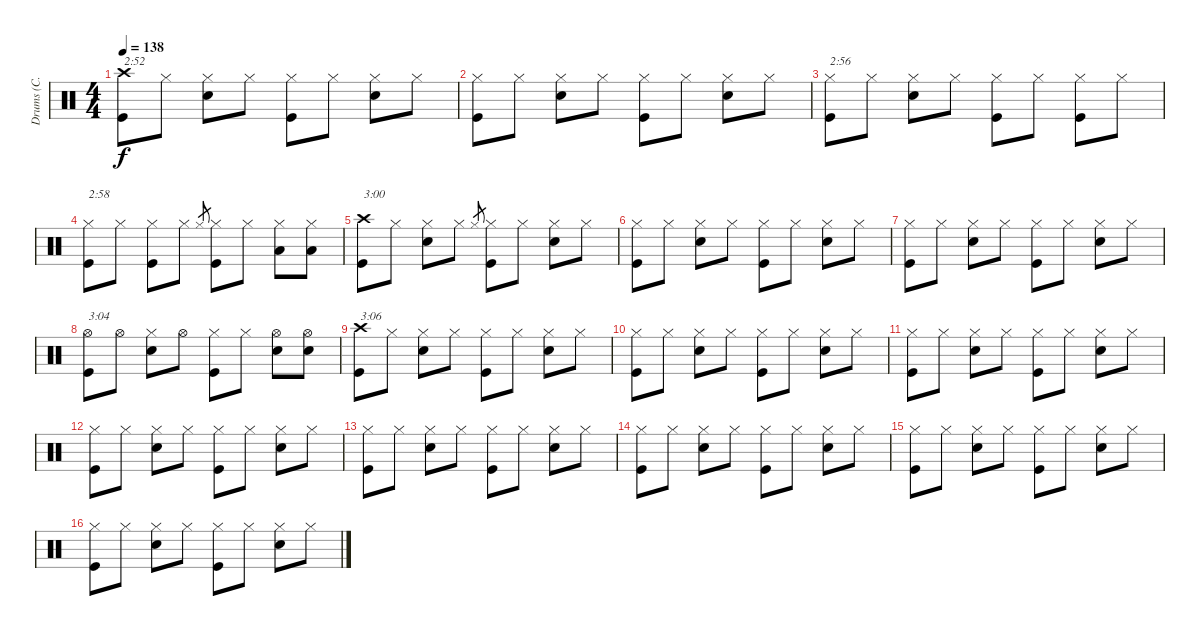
\track ("Drums (C. Watts)" "Drums (C. ") {instrument percussion}
\staff {score}
\articulation defaults
\ts (4 4)
\tempo 138
\clef neutral
\ks c
("Crash high (hit)" "Kick (hit)").8{txt "2:52" dy f} "Hi-Hat (closed)".8 ("Hi-Hat (closed)" "Snare (hit) 2").8 "Hi-Hat (closed)".8 ("Hi-Hat (closed)" "Kick (hit)").8 "Hi-Hat (closed)".8 ("Hi-Hat (closed)" "Snare (hit) 2").8 "Hi-Hat (closed)".8 |
("Hi-Hat (closed)" "Kick (hit)").8 "Hi-Hat (closed)".8 ("Hi-Hat (closed)" "Snare (hit) 2").8 "Hi-Hat (closed)".8 ("Hi-Hat (closed)" "Kick (hit)").8 "Hi-Hat (closed)".8 ("Hi-Hat (closed)" "Snare (hit) 2").8 "Hi-Hat (closed)".8 |
("Hi-Hat (closed)" "Kick (hit)").8{txt "2:56"} "Hi-Hat (closed)".8 ("Hi-Hat (closed)" "Snare (hit) 2").8 "Hi-Hat (closed)".8 ("Hi-Hat (closed)" "Kick (hit)").8 "Hi-Hat (closed)".8 ("Hi-Hat (closed)" "Kick (hit)").8 "Hi-Hat (closed)".8 |
("Hi-Hat (closed)" "Kick (hit)").8{txt "2:58"} "Hi-Hat (closed)".8 ("Hi-Hat (closed)" "Kick (hit)").8 "Hi-Hat (closed)".8 "Hi-Hat (closed)".8{gr} ("Hi-Hat (closed)" "Kick (hit)").8 "Hi-Hat (closed)".8 ("Hi-Hat (closed)" "Low Floor Tom (hit)").8 ("Hi-Hat (closed)" "Low Floor Tom (hit)").8 |
("Crash high (hit)" "Kick (hit)").8{txt "3:00 "} "Hi-Hat (closed)".8 ("Hi-Hat (closed)" "Snare (hit) 2").8 "Hi-Hat (closed)".8 "Hi-Hat (closed)".8{gr} ("Hi-Hat (closed)" "Kick (hit)").8 "Hi-Hat (closed)".8 ("Hi-Hat (closed)" "Snare (hit) 2").8 "Hi-Hat (closed)".8 |
("Hi-Hat (closed)" "Kick (hit)").8 "Hi-Hat (closed)".8 ("Hi-Hat (closed)" "Snare (hit) 2").8 "Hi-Hat (closed)".8 ("Hi-Hat (closed)" "Kick (hit)").8 "Hi-Hat (closed)".8 ("Hi-Hat (closed)" "Snare (hit) 2").8 "Hi-Hat (closed)".8 |
("Hi-Hat (closed)" "Kick (hit)").8 "Hi-Hat (closed)".8 ("Hi-Hat (closed)" "Snare (hit) 2").8 "Hi-Hat (closed)".8 ("Hi-Hat (closed)" "Kick (hit)").8 "Hi-Hat (closed)".8 ("Hi-Hat (closed)" "Snare (hit) 2").8 "Hi-Hat (closed)".8 |
("Hi-Hat (open)" "Kick (hit)").8{txt "3:04"} "Hi-Hat (open)".8 ("Hi-Hat (closed)" "Snare (hit) 2").8 "Hi-Hat (open)".8 ("Hi-Hat (closed)" "Kick (hit)").8 "Hi-Hat (closed)".8 ("Hi-Hat (open)" "Snare (hit) 2").8 ("Hi-Hat (open)" "Snare (hit) 2").8 |
("Crash high (hit)" "Kick (hit)").8{txt "3:06"} "Hi-Hat (closed)".8 ("Hi-Hat (closed)" "Snare (hit) 2").8 "Hi-Hat (closed)".8 ("Hi-Hat (closed)" "Kick (hit)").8 "Hi-Hat (closed)".8 ("Hi-Hat (closed)" "Snare (hit) 2").8 "Hi-Hat (closed)".8 |
("Hi-Hat (closed)" "Kick (hit)").8 "Hi-Hat (closed)".8 ("Hi-Hat (closed)" "Snare (hit) 2").8 "Hi-Hat (closed)".8 ("Hi-Hat (closed)" "Kick (hit)").8 "Hi-Hat (closed)".8 ("Hi-Hat (closed)" "Snare (hit) 2").8 "Hi-Hat (closed)".8 |
("Hi-Hat (closed)" "Kick (hit)").8 "Hi-Hat (closed)".8 ("Hi-Hat (closed)" "Snare (hit) 2").8 "Hi-Hat (closed)".8 ("Hi-Hat (closed)" "Kick (hit)").8 "Hi-Hat (closed)".8 ("Hi-Hat (closed)" "Snare (hit) 2").8 "Hi-Hat (closed)".8 |
("Hi-Hat (closed)" "Kick (hit)").8 "Hi-Hat (closed)".8 ("Hi-Hat (closed)" "Snare (hit) 2").8 "Hi-Hat (closed)".8 ("Hi-Hat (closed)" "Kick (hit)").8 "Hi-Hat (closed)".8 ("Hi-Hat (closed)" "Snare (hit) 2").8 "Hi-Hat (closed)".8 |
("Hi-Hat (closed)" "Kick (hit)").8 "Hi-Hat (closed)".8 ("Hi-Hat (closed)" "Snare (hit) 2").8 "Hi-Hat (closed)".8 ("Hi-Hat (closed)" "Kick (hit)").8 "Hi-Hat (closed)".8 ("Hi-Hat (closed)" "Snare (hit) 2").8 "Hi-Hat (closed)".8 |
("Hi-Hat (closed)" "Kick (hit)").8 "Hi-Hat (closed)".8 ("Hi-Hat (closed)" "Snare (hit) 2").8 "Hi-Hat (closed)".8 ("Hi-Hat (closed)" "Kick (hit)").8 "Hi-Hat (closed)".8 ("Hi-Hat (closed)" "Snare (hit) 2").8 "Hi-Hat (closed)".8 |
("Hi-Hat (closed)" "Kick (hit)").8 "Hi-Hat (closed)".8 ("Hi-Hat (closed)" "Snare (hit) 2").8 "Hi-Hat (closed)".8 ("Hi-Hat (closed)" "Kick (hit)").8 "Hi-Hat (closed)".8 ("Hi-Hat (closed)" "Snare (hit) 2").8 "Hi-Hat (closed)".8 |
("Hi-Hat (closed)" "Kick (hit)").8{volume 0} "Hi-Hat (closed)".8 ("Hi-Hat (closed)" "Snare (hit) 2").8 "Hi-Hat (closed)".8 ("Hi-Hat (closed)" "Kick (hit)").8 "Hi-Hat (closed)".8 ("Hi-Hat (closed)" "Snare (hit) 2").8 "Hi-Hat (closed)".8
